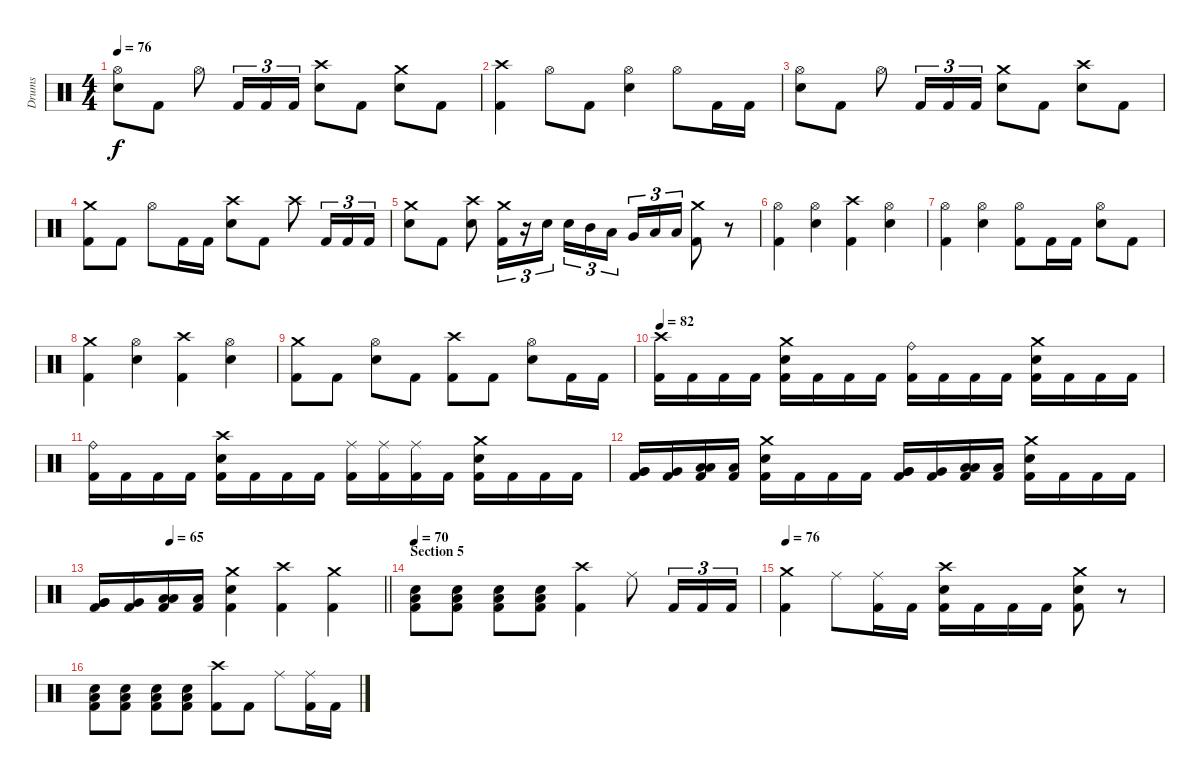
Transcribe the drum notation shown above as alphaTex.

\track ("Drums" "Drums") {instrument percussion}
\staff {score}
\articulation defaults
\ts (4 4)
\tempo 76
\clef neutral
\ks c
("Hi-Hat (open)" "Electric Snare (hit)").8{dy f} "Kick (hit) 2".8 "Hi-Hat (open)".8 "Kick (hit) 2".16{tu (3 2)} "Kick (hit) 2".16{tu (3 2)} "Kick (hit) 2".16{tu (3 2)} ("Crash high (hit)" "Electric Snare (hit)").8 "Kick (hit) 2".8 ("Crash medium (hit)" "Electric Snare (hit)").8 "Kick (hit) 2".8 |
("Crash high (hit)" "Kick (hit) 2").4 "Hi-Hat (open)".8 "Kick (hit) 2".8 ("Hi-Hat (open)" "Electric Snare (hit)").4 "Hi-Hat (open)".8 "Kick (hit) 2".16 "Kick (hit) 2".16 |
("Hi-Hat (open)" "Electric Snare (hit)").8 "Kick (hit) 2".8 "Hi-Hat (open)".8 "Kick (hit) 2".16{tu (3 2)} "Kick (hit) 2".16{tu (3 2)} "Kick (hit) 2".16{tu (3 2)} ("Crash medium (hit)" "Electric Snare (hit)").8 "Kick (hit) 2".8 ("Crash high (hit)" "Electric Snare (hit)").8 "Kick (hit) 2".8 |
("Crash medium (hit)" "Kick (hit) 2").8 "Kick (hit) 2".8 "Hi-Hat (open)".8 "Kick (hit) 2".16 "Kick (hit) 2".16 ("Crash high (hit)" "Electric Snare (hit)").8 "Kick (hit) 2".8 "Crash high (hit)".8 "Kick (hit) 2".16{tu (3 2)} "Kick (hit) 2".16{tu (3 2)} "Kick (hit) 2".16{tu (3 2)} |
("Crash medium (hit)" "Electric Snare (hit)").8 "Kick (hit) 2".8 ("Crash high (hit)" "Electric Snare (hit)").8 ("Crash medium (hit)" "Kick (hit) 2").16{tu (3 2)} r.16{tu (3 2)} "Electric Snare (hit)".16{tu (3 2)} "Electric Snare (hit)".16{tu (3 2)} "Mid Tom (hit)".16{tu (3 2)} "Low Tom (hit)".16{tu (3 2) beam splitsecondary} "Very Low Tom (hit)".16{tu (3 2)} "Low Floor Tom (hit)".16{tu (3 2)} "Low Floor Tom (hit)".16{tu (3 2)} ("Crash medium (hit)" "Kick (hit) 2").8 r.8 |
("Hi-Hat (open)" "Kick (hit) 2").4 ("Hi-Hat (open)" "Electric Snare (hit)").4 ("Crash high (hit)" "Kick (hit) 2").4 ("Hi-Hat (open)" "Electric Snare (hit)").4 |
("Hi-Hat (open)" "Kick (hit) 2").4 ("Hi-Hat (open)" "Electric Snare (hit)").4 ("Hi-Hat (open)" "Kick (hit) 2").8 "Kick (hit) 2".16 "Kick (hit) 2".16 ("Hi-Hat (open)" "Electric Snare (hit)").8 "Kick (hit) 2".8 |
("Crash medium (hit)" "Kick (hit) 2").4 ("Hi-Hat (open)" "Electric Snare (hit)").4 ("Crash high (hit)" "Kick (hit) 2").4 ("Hi-Hat (open)" "Electric Snare (hit)").4 |
("Crash medium (hit)" "Kick (hit) 2").8 "Kick (hit) 2".8 ("Hi-Hat (open)" "Electric Snare (hit)").8 "Kick (hit) 2".8 ("Crash high (hit)" "Kick (hit) 2").8 "Kick (hit) 2".8 ("Hi-Hat (open)" "Electric Snare (hit)").8 "Kick (hit) 2".16 "Kick (hit) 2".16 |
\tempo 82
("Crash high (hit)" "Kick (hit) 2").16 "Kick (hit) 2".16 "Kick (hit) 2".16 "Kick (hit) 2".16 ("Crash medium (hit)" "Electric Snare (hit)" "Kick (hit) 2").16 "Kick (hit) 2".16 "Kick (hit) 2".16 "Kick (hit) 2".16 ("Ride (bell)" "Kick (hit) 2").16 "Kick (hit) 2".16 "Kick (hit) 2".16 "Kick (hit) 2".16 ("Crash medium (hit)" "Electric Snare (hit)" "Kick (hit) 2").16 "Kick (hit) 2".16 "Kick (hit) 2".16 "Kick (hit) 2".16 |
("Ride (bell)" "Kick (hit) 2").16 "Kick (hit) 2".16 "Kick (hit) 2".16 "Kick (hit) 2".16 ("Crash high (hit)" "Electric Snare (hit)" "Kick (hit) 2").16 "Kick (hit) 2".16 "Kick (hit) 2".16 "Kick (hit) 2".16 ("Ride (middle)" "Kick (hit) 2").16 ("Ride (middle)" "Kick (hit) 2").16 ("Ride (middle)" "Kick (hit) 2").16 "Kick (hit) 2".16 ("Crash medium (hit)" "Electric Snare (hit)" "Kick (hit) 2").16 "Kick (hit) 2".16 "Kick (hit) 2".16 "Kick (hit) 2".16 |
("Very Low Tom (hit)" "Very Low Tom (hit)" "Kick (hit) 2").16 ("Very Low Tom (hit)" "Kick (hit) 2").16 ("Low Floor Tom (hit)" "Low Floor Tom (hit)" "Kick (hit) 2").16 ("Low Floor Tom (hit)" "Kick (hit) 2").16 ("Crash medium (hit)" "Electric Snare (hit)" "Kick (hit) 2").16 "Kick (hit) 2".16 "Kick (hit) 2".16 "Kick (hit) 2".16 ("Very Low Tom (hit)" "Very Low Tom (hit)" "Kick (hit) 2").16 ("Very Low Tom (hit)" "Kick (hit) 2").16 ("Low Floor Tom (hit)" "Low Floor Tom (hit)" "Kick (hit) 2").16 ("Low Floor Tom (hit)" "Kick (hit) 2").16 ("Crash medium (hit)" "Electric Snare (hit)" "Kick (hit) 2").16 "Kick (hit) 2".16 "Kick (hit) 2".16 "Kick (hit) 2".16 |
\tempo (65 0.25)
\barLineRight lightlight
("Very Low Tom (hit)" "Very Low Tom (hit)" "Kick (hit) 2").16 ("Very Low Tom (hit)" "Kick (hit) 2").16 ("Low Floor Tom (hit)" "Low Floor Tom (hit)" "Kick (hit) 2").16 ("Low Floor Tom (hit)" "Kick (hit) 2").16 ("Crash medium (hit)" "Electric Snare (hit)" "Kick (hit) 2").4 ("Crash high (hit)" "Kick (hit) 2").4 ("Crash medium (hit)" "Kick (hit) 2").4 |
\section ("" "Section 5")
\tempo 70
("Low Floor Tom (hit)" "Electric Snare (hit)" "Kick (hit) 2").8 ("Low Floor Tom (hit)" "Electric Snare (hit)" "Kick (hit) 2").8 ("Low Floor Tom (hit)" "Electric Snare (hit)" "Kick (hit) 2").8 ("Low Floor Tom (hit)" "Electric Snare (hit)" "Kick (hit) 2").8 ("Crash high (hit)" "Kick (hit) 2").4 "Ride (middle)".8 "Kick (hit) 2".16{tu (3 2)} "Kick (hit) 2".16{tu (3 2)} "Kick (hit) 2".16{tu (3 2)} |
\tempo 76
("Crash medium (hit)" "Kick (hit) 2").4 "Ride (middle)".8 ("Ride (middle)" "Kick (hit) 2").16 "Kick (hit) 2".16 ("Crash high (hit)" "Electric Snare (hit)" "Kick (hit) 2").16 "Kick (hit) 2".16 "Kick (hit) 2".16 "Kick (hit) 2".16 ("Crash medium (hit)" "Electric Snare (hit)" "Kick (hit) 2").8 r.8 |
("Low Floor Tom (hit)" "Electric Snare (hit)" "Kick (hit) 2").8 ("Low Floor Tom (hit)" "Electric Snare (hit)" "Kick (hit) 2").8 ("Low Floor Tom (hit)" "Electric Snare (hit)" "Kick (hit) 2").8 ("Low Floor Tom (hit)" "Electric Snare (hit)" "Kick (hit) 2").8 ("Crash high (hit)" "Kick (hit) 2").8 "Kick (hit) 2".8 "Ride (middle)".8 ("Ride (middle)" "Kick (hit) 2").16 "Kick (hit) 2".16
